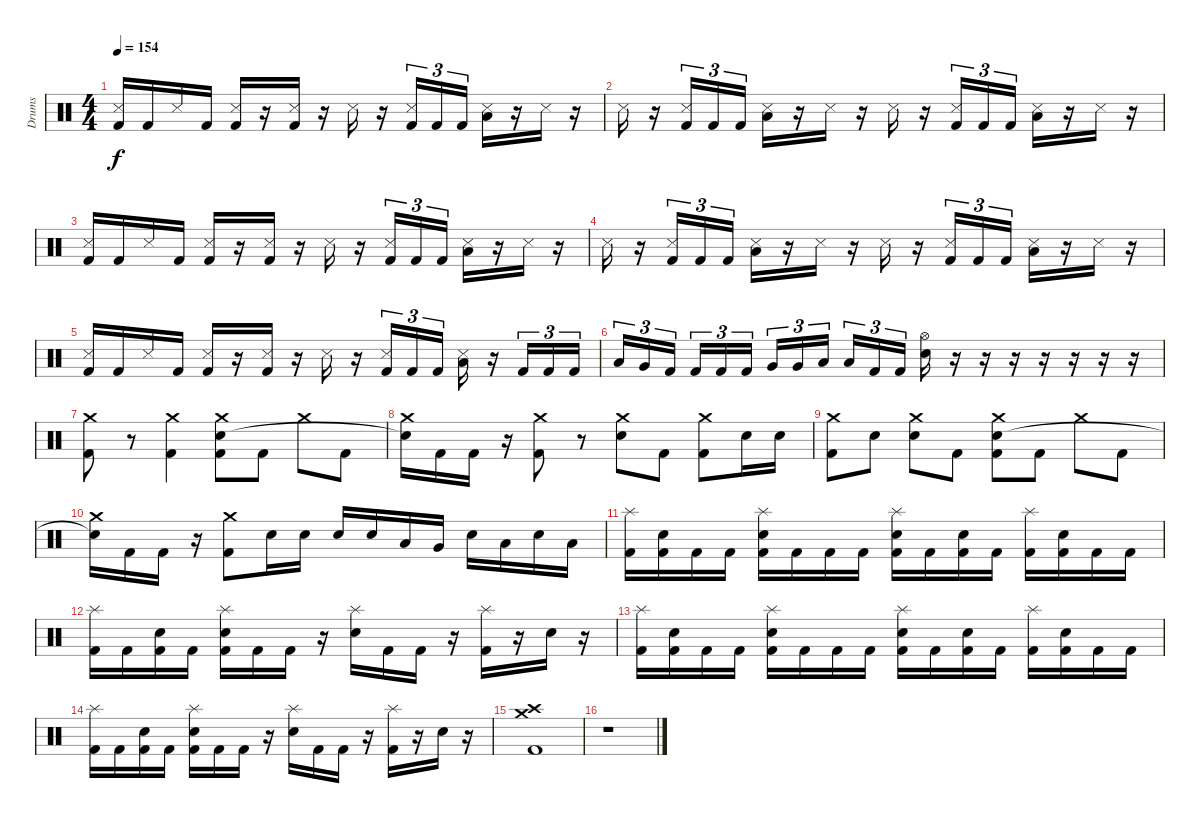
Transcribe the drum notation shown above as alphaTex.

\track ("Drums" "Drums") {instrument percussion}
\staff {score}
\articulation defaults
\ts (4 4)
\tempo 154
\clef neutral
\ks c
("Snare (side stick) 3" "Kick (hit) 2").16{dy f} "Kick (hit) 2".16 "Snare (side stick) 3".16 "Kick (hit) 2".16 ("Snare (side stick) 3" "Kick (hit) 2").16 r.16 ("Snare (side stick) 3" "Kick (hit) 2").16 r.16 "Snare (side stick) 3".16 r.16 ("Snare (side stick) 3" "Kick (hit) 2").16{tu (3 2)} "Kick (hit) 2".16{tu (3 2)} "Kick (hit) 2".16{tu (3 2)} ("Snare (side stick) 3" "Low Floor Tom (hit)").16 r.16 "Snare (side stick) 3".16 r.16 |
"Snare (side stick) 3".16 r.16 ("Snare (side stick) 3" "Kick (hit) 2").16{tu (3 2)} "Kick (hit) 2".16{tu (3 2)} "Kick (hit) 2".16{tu (3 2)} ("Snare (side stick) 3" "Low Floor Tom (hit)").16 r.16 "Snare (side stick) 3".16 r.16 "Snare (side stick) 3".16 r.16 ("Snare (side stick) 3" "Kick (hit) 2").16{tu (3 2)} "Kick (hit) 2".16{tu (3 2)} "Kick (hit) 2".16{tu (3 2)} ("Snare (side stick) 3" "Low Floor Tom (hit)").16 r.16 "Snare (side stick) 3".16 r.16 |
("Snare (side stick) 3" "Kick (hit) 2").16 "Kick (hit) 2".16 "Snare (side stick) 3".16 "Kick (hit) 2".16 ("Snare (side stick) 3" "Kick (hit) 2").16 r.16 ("Snare (side stick) 3" "Kick (hit) 2").16 r.16 "Snare (side stick) 3".16 r.16 ("Snare (side stick) 3" "Kick (hit) 2").16{tu (3 2)} "Kick (hit) 2".16{tu (3 2)} "Kick (hit) 2".16{tu (3 2)} ("Snare (side stick) 3" "Low Floor Tom (hit)").16 r.16 "Snare (side stick) 3".16 r.16 |
"Snare (side stick) 3".16 r.16 ("Snare (side stick) 3" "Kick (hit) 2").16{tu (3 2)} "Kick (hit) 2".16{tu (3 2)} "Kick (hit) 2".16{tu (3 2)} ("Snare (side stick) 3" "Low Floor Tom (hit)").16 r.16 "Snare (side stick) 3".16 r.16 "Snare (side stick) 3".16 r.16 ("Snare (side stick) 3" "Kick (hit) 2").16{tu (3 2)} "Kick (hit) 2".16{tu (3 2)} "Kick (hit) 2".16{tu (3 2)} ("Snare (side stick) 3" "Low Floor Tom (hit)").16 r.16 "Snare (side stick) 3".16 r.16 |
("Snare (side stick) 3" "Kick (hit) 2").16 "Kick (hit) 2".16 "Snare (side stick) 3".16 "Kick (hit) 2".16 ("Snare (side stick) 3" "Kick (hit) 2").16 r.16 ("Snare (side stick) 3" "Kick (hit) 2").16 r.16 "Snare (side stick) 3".16 r.16 ("Snare (side stick) 3" "Kick (hit) 2").16{tu (3 2)} "Kick (hit) 2".16{tu (3 2)} "Kick (hit) 2".16{tu (3 2)} ("Snare (side stick) 3" "Low Floor Tom (hit)").16 r.16 "Kick (hit) 2".16{tu (3 2)} "Kick (hit) 2".16{tu (3 2)} "Kick (hit) 2".16{tu (3 2)} |
"Low Tom (hit)".16{tu (3 2)} "Very Low Tom (hit)".16{tu (3 2)} "Kick (hit) 2".16{tu (3 2)} "Kick (hit) 2".16{tu (3 2)} "Kick (hit) 2".16{tu (3 2)} "Kick (hit) 2".16{tu (3 2)} "Very Low Tom (hit)".16{tu (3 2)} "Very Low Tom (hit)".16{tu (3 2)} "Low Floor Tom (hit)".16{tu (3 2)} "Low Floor Tom (hit)".16{tu (3 2)} "Kick (hit) 2".16{tu (3 2)} "Kick (hit) 2".16{tu (3 2)} ("Hi-Hat (open)" "Electric Snare (hit)").16 r.16 r.16 r.16 r.16 r.16 r.16 r.16 |
("Crash medium (hit)" "Kick (hit) 2").8 r.8 ("Crash medium (hit)" "Kick (hit) 2").4 ("Crash medium (hit)" "Electric Snare (hit)" "Kick (hit) 2").8 "Kick (hit) 2".8 "Crash medium (hit)".8 "Kick (hit) 2".8 |
("Crash medium (hit)" "Snare (hit)"{t}).16 "Kick (hit) 2".16 "Kick (hit) 2".16 r.16 ("Crash medium (hit)" "Kick (hit) 2").8 r.8 ("Crash medium (hit)" "Electric Snare (hit)").8 "Kick (hit) 2".8 ("Crash medium (hit)" "Kick (hit) 2").8 "Electric Snare (hit)".16 "Electric Snare (hit)".16 |
("Crash medium (hit)" "Kick (hit) 2").8 "Electric Snare (hit)".8 ("Crash medium (hit)" "Electric Snare (hit)").8 "Kick (hit) 2".8 ("Crash medium (hit)" "Electric Snare (hit)" "Kick (hit) 2").8 "Kick (hit) 2".8 "Crash medium (hit)".8 "Kick (hit) 2".8 |
("Crash medium (hit)" "Snare (hit)"{t}).16 "Kick (hit) 2".16 "Kick (hit) 2".16 r.16 ("Crash medium (hit)" "Kick (hit) 2").8 "Electric Snare (hit)".16 "Electric Snare (hit)".16 "Electric Snare (hit)".16 "Electric Snare (hit)".16 "Low Tom (hit)".16 "Very Low Tom (hit)".16 "Electric Snare (hit)".16 "Low Tom (hit)".16 "Electric Snare (hit)".16 "Low Floor Tom (hit)".16 |
("Splash (hit)" "Kick (hit) 2").16 ("Electric Snare (hit)" "Kick (hit) 2").16 "Kick (hit) 2".16 "Kick (hit) 2".16 ("Splash (hit)" "Electric Snare (hit)" "Kick (hit) 2").16 "Kick (hit) 2".16 "Kick (hit) 2".16 "Kick (hit) 2".16 ("Splash (hit)" "Electric Snare (hit)" "Kick (hit) 2").16 "Kick (hit) 2".16 ("Electric Snare (hit)" "Kick (hit) 2").16 "Kick (hit) 2".16 ("Splash (hit)" "Kick (hit) 2").16 ("Electric Snare (hit)" "Kick (hit) 2").16 "Kick (hit) 2".16 "Kick (hit) 2".16 |
("Splash (hit)" "Kick (hit) 2").16 "Kick (hit) 2".16 ("Electric Snare (hit)" "Kick (hit) 2").16 "Kick (hit) 2".16 ("Splash (hit)" "Electric Snare (hit)" "Kick (hit) 2").16 "Kick (hit) 2".16 "Kick (hit) 2".16 r.16 ("Splash (hit)" "Electric Snare (hit)").16 "Kick (hit) 2".16 "Kick (hit) 2".16 r.16 ("Splash (hit)" "Kick (hit) 2").16 r.16 "Electric Snare (hit)".16 r.16 |
("Splash (hit)" "Kick (hit) 2").16 ("Electric Snare (hit)" "Kick (hit) 2").16 "Kick (hit) 2".16 "Kick (hit) 2".16 ("Splash (hit)" "Electric Snare (hit)" "Kick (hit) 2").16 "Kick (hit) 2".16 "Kick (hit) 2".16 "Kick (hit) 2".16 ("Splash (hit)" "Electric Snare (hit)" "Kick (hit) 2").16 "Kick (hit) 2".16 ("Electric Snare (hit)" "Kick (hit) 2").16 "Kick (hit) 2".16 ("Splash (hit)" "Kick (hit) 2").16 ("Electric Snare (hit)" "Kick (hit) 2").16 "Kick (hit) 2".16 "Kick (hit) 2".16 |
("Splash (hit)" "Kick (hit) 2").16 "Kick (hit) 2".16 ("Electric Snare (hit)" "Kick (hit) 2").16 "Kick (hit) 2".16 ("Splash (hit)" "Electric Snare (hit)" "Kick (hit) 2").16 "Kick (hit) 2".16 "Kick (hit) 2".16 r.16 ("Splash (hit)" "Electric Snare (hit)").16 "Kick (hit) 2".16 "Kick (hit) 2".16 r.16 ("Splash (hit)" "Kick (hit) 2").16 r.16 "Electric Snare (hit)".16 r.16 |
("Crash medium (hit)" "Crash high (hit)" "Kick (hit) 2").1 |
r.1
